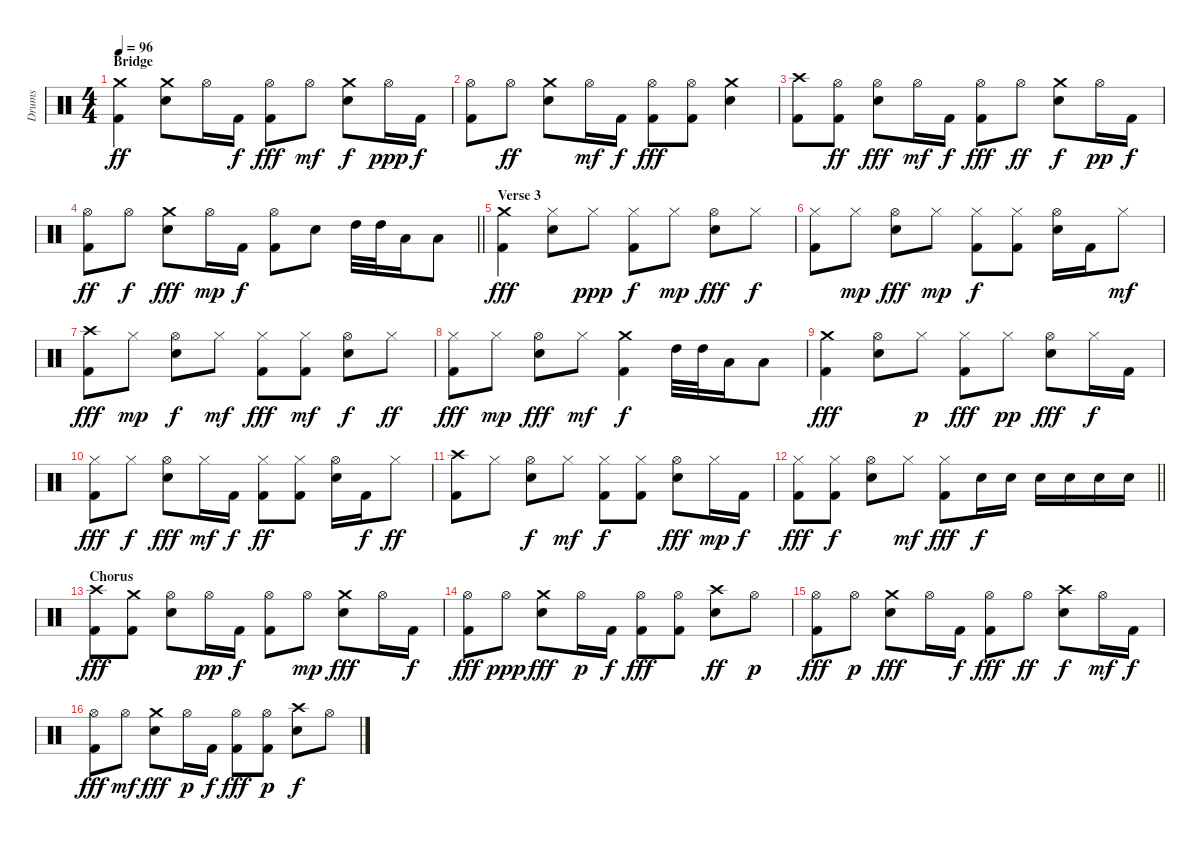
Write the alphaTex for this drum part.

\track ("Drums" "Drums") {instrument percussion}
\staff {score}
\articulation defaults
\ts (4 4)
\section ("" "Bridge")
\tempo 96
\clef neutral
\ks c
("Crash medium (hit)" "Kick (hit) 2").4{dy ff} ("Crash medium (hit)" "Snare (hit) 2").8 "Hi-Hat (open)".16 "Kick (hit) 2".16{dy f} ("Hi-Hat (open)" "Kick (hit) 2").8{dy fff} "Hi-Hat (open)".8{dy mf} ("Crash medium (hit)" "Snare (hit) 2").8{dy f} "Hi-Hat (open)".16{dy ppp} "Kick (hit) 2".16{dy f} |
("Hi-Hat (open)" "Kick (hit) 2").8 "Hi-Hat (open)".8{dy ff} ("Crash medium (hit)" "Snare (hit) 2").8 "Hi-Hat (open)".16{dy mf} "Kick (hit) 2".16{dy f} ("Hi-Hat (open)" "Kick (hit) 2").8{dy fff} ("Hi-Hat (open)" "Kick (hit) 2").8 ("Crash medium (hit)" "Snare (hit) 2").4 |
("Crash high (hit)" "Kick (hit) 2").8 ("Hi-Hat (open)" "Kick (hit) 2").8{dy ff} ("Hi-Hat (open)" "Snare (hit) 2").8{dy fff} "Hi-Hat (open)".16{dy mf} "Kick (hit) 2".16{dy f} ("Hi-Hat (open)" "Kick (hit) 2").8{dy fff} "Hi-Hat (open)".8{dy ff} ("Crash medium (hit)" "Snare (hit) 2").8{dy f} "Hi-Hat (open)".16{dy pp} "Kick (hit) 2".16{dy f} |
\barLineRight lightlight
("Hi-Hat (open)" "Kick (hit) 2").8{dy ff} "Hi-Hat (open)".8{dy f} ("Crash medium (hit)" "Snare (hit) 2").8{dy fff} "Hi-Hat (open)".16{dy mp} "Kick (hit) 2".16{dy f} ("Hi-Hat (open)" "Kick (hit) 2").8 "Snare (hit) 2".8 "High Tom (hit)".32 "High Tom (hit)".32 "Low Tom (hit)".16 "Low Tom (hit)".8 |
\section ("" "Verse 3")
("Crash medium (hit)" "Kick (hit) 2").4{dy fff} ("Hi-Hat (closed)" "Snare (hit) 2").8 "Hi-Hat (closed)".8{dy ppp} ("Hi-Hat (closed)" "Kick (hit) 2").8{dy f} "Hi-Hat (closed)".8{dy mp} ("Hi-Hat (open)" "Snare (hit) 2").8{dy fff} "Hi-Hat (closed)".8{dy f} |
("Hi-Hat (closed)" "Kick (hit) 2").8 "Hi-Hat (closed)".8{dy mp} ("Hi-Hat (open)" "Snare (hit) 2").8{dy fff} "Hi-Hat (closed)".8{dy mp} ("Hi-Hat (closed)" "Kick (hit) 2").8{dy f} ("Hi-Hat (closed)" "Kick (hit) 2").8 ("Hi-Hat (open)" "Snare (hit) 2").16 "Kick (hit) 2".16 "Hi-Hat (closed)".8{dy mf} |
("Crash high (hit)" "Kick (hit) 2").8{dy fff} "Hi-Hat (closed)".8{dy mp} ("Hi-Hat (open)" "Snare (hit) 2").8{dy f} "Hi-Hat (closed)".8{dy mf} ("Hi-Hat (closed)" "Kick (hit) 2").8{dy fff} ("Hi-Hat (closed)" "Kick (hit) 2").8{dy mf} ("Hi-Hat (open)" "Snare (hit) 2").8{dy f} "Hi-Hat (closed)".8{dy ff} |
("Hi-Hat (closed)" "Kick (hit) 2").8{dy fff} "Hi-Hat (closed)".8{dy mp} ("Hi-Hat (open)" "Snare (hit) 2").8{dy fff} "Hi-Hat (closed)".8{dy mf} ("Crash medium (hit)" "Kick (hit) 2").4{dy f} "High Tom (hit)".32 "High Tom (hit)".32 "Low Tom (hit)".16 "Low Tom (hit)".8 |
("Crash medium (hit)" "Kick (hit) 2").4{dy fff} ("Hi-Hat (open)" "Snare (hit) 2").8 "Hi-Hat (closed)".8{dy p} ("Hi-Hat (closed)" "Kick (hit) 2").8{dy fff} "Hi-Hat (closed)".8{dy pp} ("Hi-Hat (open)" "Snare (hit) 2").8{dy fff} "Hi-Hat (closed)".16{dy f} "Kick (hit) 2".16 |
("Hi-Hat (closed)" "Kick (hit) 2").8{dy fff} "Hi-Hat (closed)".8{dy f} ("Hi-Hat (open)" "Snare (hit) 2").8{dy fff} "Hi-Hat (closed)".16{dy mf} "Kick (hit) 2".16{dy f} ("Hi-Hat (closed)" "Kick (hit) 2").8{dy ff} ("Hi-Hat (closed)" "Kick (hit) 2").8 ("Hi-Hat (open)" "Snare (hit) 2").16 "Kick (hit) 2".16{dy f} "Hi-Hat (closed)".8{dy ff} |
("Crash high (hit)" "Kick (hit) 2").8 "Hi-Hat (closed)".8 ("Hi-Hat (open)" "Snare (hit) 2").8{dy f} "Hi-Hat (closed)".8{dy mf} ("Hi-Hat (closed)" "Kick (hit) 2").8{dy f} ("Hi-Hat (closed)" "Kick (hit) 2").8 ("Hi-Hat (open)" "Snare (hit) 2").8{dy fff} "Hi-Hat (closed)".16{dy mp} "Kick (hit) 2".16{dy f} |
\barLineRight lightlight
("Hi-Hat (closed)" "Kick (hit) 2").8{dy fff} ("Hi-Hat (closed)" "Kick (hit) 2").8{dy f} ("Hi-Hat (open)" "Snare (hit) 2").8 "Hi-Hat (closed)".8{dy mf} ("Hi-Hat (closed)" "Kick (hit) 2").8{dy fff} "Snare (hit) 2".16{dy f} "Snare (hit) 2".16 "Snare (hit) 2".16 "Snare (hit) 2".16 "Snare (hit) 2".16 "Snare (hit) 2".16 |
\section ("" "Chorus")
("Crash high (hit)" "Kick (hit) 2").8{dy fff} ("Crash medium (hit)" "Kick (hit) 2").8 ("Hi-Hat (open)" "Snare (hit) 2").8 "Hi-Hat (open)".16{dy pp} "Kick (hit) 2".16{dy f} ("Hi-Hat (open)" "Kick (hit) 2").8 "Hi-Hat (open)".8{dy mp} ("Crash medium (hit)" "Snare (hit) 2").8{dy fff} "Hi-Hat (open)".16 "Kick (hit) 2".16{dy f} |
("Hi-Hat (open)" "Kick (hit) 2").8{dy fff} "Hi-Hat (open)".8{dy ppp} ("Crash medium (hit)" "Snare (hit) 2").8{dy fff} "Hi-Hat (open)".16{dy p} "Kick (hit) 2".16{dy f} ("Hi-Hat (open)" "Kick (hit) 2").8{dy fff} ("Hi-Hat (open)" "Kick (hit) 2").8 ("Crash high (hit)" "Snare (hit) 2").8{dy ff} "Hi-Hat (open)".8{dy p} |
("Hi-Hat (open)" "Kick (hit) 2").8{dy fff} "Hi-Hat (open)".8{dy p} ("Crash medium (hit)" "Snare (hit) 2").8{dy fff} "Hi-Hat (open)".16 "Kick (hit) 2".16{dy f} ("Hi-Hat (open)" "Kick (hit) 2").8{dy fff} "Hi-Hat (open)".8{dy ff} ("Crash high (hit)" "Snare (hit) 2").8{dy f} "Hi-Hat (open)".16{dy mf} "Kick (hit) 2".16{dy f} |
("Hi-Hat (open)" "Kick (hit) 2").8{dy fff} "Hi-Hat (open)".8{dy mf} ("Crash medium (hit)" "Snare (hit) 2").8{dy fff} "Hi-Hat (open)".16{dy p} "Kick (hit) 2".16{dy f} ("Hi-Hat (open)" "Kick (hit) 2").8{dy fff} ("Hi-Hat (open)" "Kick (hit) 2").8{dy p} ("Crash high (hit)" "Snare (hit) 2").8{dy f} "Hi-Hat (open)".8
